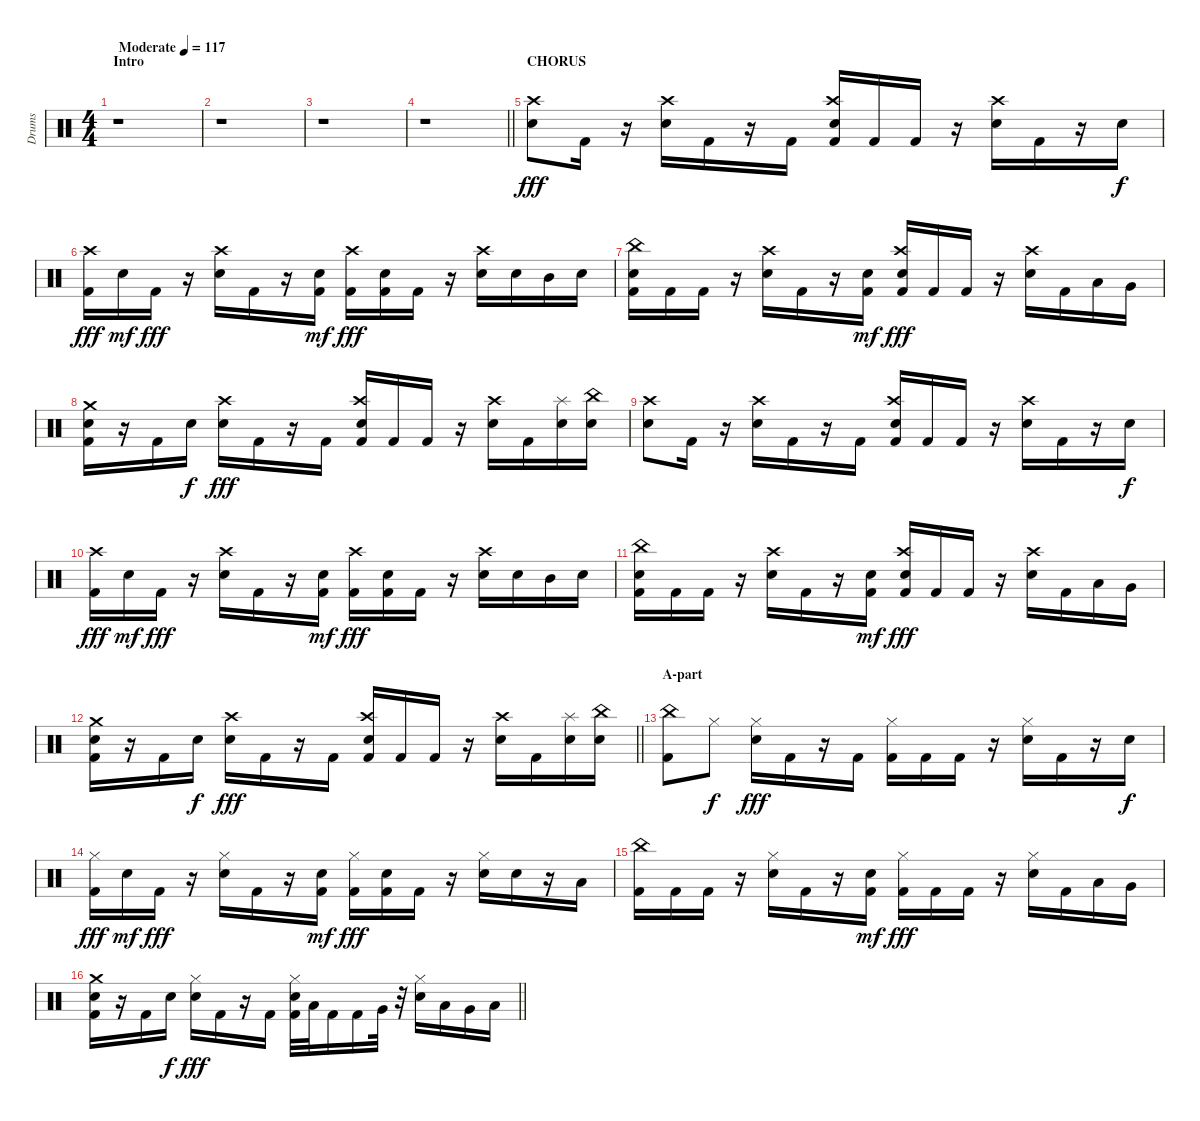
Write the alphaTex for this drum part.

\track ("Drums" "Drums") {instrument percussion}
\staff {score}
\articulation defaults
\ts (4 4)
\section ("" "Intro")
\tempo (117 "Moderate")
\clef neutral
\ks c
r.1{dy fff} |
r.1 |
r.1 |
\barLineRight lightlight
r.1 |
\section ("" "CHORUS")
("Snare (hit) 2" "Crash high (hit)").8 "Kick (hit) 2".16 r.16 ("Snare (hit) 2" "Crash high (hit)").16 "Kick (hit) 2".16 r.16 "Kick (hit) 2".16 ("Kick (hit) 2" "Snare (hit) 2" "Crash high (hit)").16 "Kick (hit) 2".16 "Kick (hit) 2".16 r.16 ("Snare (hit) 2" "Crash high (hit)").16 "Kick (hit) 2".16 r.16 "Snare (hit) 2".16{dy f} |
("Kick (hit) 2" "Crash high (hit)").16{dy fff} "Snare (hit) 2".16{dy mf} "Kick (hit) 2".16{dy fff} r.16 ("Snare (hit) 2" "Crash high (hit)").16 "Kick (hit) 2".16 r.16 ("Kick (hit) 2" "Snare (hit) 2").16{dy mf} ("Kick (hit) 2" "Crash high (hit)").16{dy fff} ("Kick (hit) 2" "Snare (hit) 2").16 "Kick (hit) 2".16 r.16 ("Snare (hit) 2" "Crash high (hit)").16 "Snare (hit) 2".16 "Mid Tom (hit)".16 "Snare (hit) 2".16 |
("Kick (hit) 2" "Snare (hit) 2" "China (hit)").16 "Kick (hit) 2".16 "Kick (hit) 2".16 r.16 ("Snare (hit) 2" "Crash high (hit)").16 "Kick (hit) 2".16 r.16 ("Kick (hit) 2" "Snare (hit) 2").16{dy mf} ("Kick (hit) 2" "Snare (hit) 2" "Crash high (hit)").16{dy fff} "Kick (hit) 2".16 "Kick (hit) 2".16 r.16 ("Snare (hit) 2" "Crash high (hit)").16 "Kick (hit) 2".16 "Low Tom (hit)".16 "Very Low Tom (hit)".16 |
("Kick (hit) 2" "Snare (hit) 2" "Crash medium (hit)").16 r.16 "Kick (hit) 2".16 "Snare (hit) 2".16{dy f} ("Snare (hit) 2" "Crash high (hit)").16{dy fff} "Kick (hit) 2".16 r.16 "Kick (hit) 2".16 ("Kick (hit) 2" "Snare (hit) 2" "Crash high (hit)").16 "Kick (hit) 2".16 "Kick (hit) 2".16 r.16 ("Snare (hit) 2" "Crash high (hit)").16 "Kick (hit) 2".16 ("Snare (hit) 2" "Splash (hit)").16 ("Snare (hit) 2" "China (hit)").16 |
("Snare (hit) 2" "Crash high (hit)").8 "Kick (hit) 2".16 r.16 ("Snare (hit) 2" "Crash high (hit)").16 "Kick (hit) 2".16 r.16 "Kick (hit) 2".16 ("Kick (hit) 2" "Snare (hit) 2" "Crash high (hit)").16 "Kick (hit) 2".16 "Kick (hit) 2".16 r.16 ("Snare (hit) 2" "Crash high (hit)").16 "Kick (hit) 2".16 r.16 "Snare (hit) 2".16{dy f} |
("Kick (hit) 2" "Crash high (hit)").16{dy fff} "Snare (hit) 2".16{dy mf} "Kick (hit) 2".16{dy fff} r.16 ("Snare (hit) 2" "Crash high (hit)").16 "Kick (hit) 2".16 r.16 ("Kick (hit) 2" "Snare (hit) 2").16{dy mf} ("Kick (hit) 2" "Crash high (hit)").16{dy fff} ("Kick (hit) 2" "Snare (hit) 2").16 "Kick (hit) 2".16 r.16 ("Snare (hit) 2" "Crash high (hit)").16 "Snare (hit) 2".16 "Mid Tom (hit)".16 "Snare (hit) 2".16 |
("Kick (hit) 2" "Snare (hit) 2" "China (hit)").16 "Kick (hit) 2".16 "Kick (hit) 2".16 r.16 ("Snare (hit) 2" "Crash high (hit)").16 "Kick (hit) 2".16 r.16 ("Kick (hit) 2" "Snare (hit) 2").16{dy mf} ("Kick (hit) 2" "Snare (hit) 2" "Crash high (hit)").16{dy fff} "Kick (hit) 2".16 "Kick (hit) 2".16 r.16 ("Snare (hit) 2" "Crash high (hit)").16 "Kick (hit) 2".16 "Low Tom (hit)".16 "Very Low Tom (hit)".16 |
\barLineRight lightlight
("Kick (hit) 2" "Snare (hit) 2" "Crash medium (hit)").16 r.16 "Kick (hit) 2".16 "Snare (hit) 2".16{dy f} ("Snare (hit) 2" "Crash high (hit)").16{dy fff} "Kick (hit) 2".16 r.16 "Kick (hit) 2".16 ("Kick (hit) 2" "Snare (hit) 2" "Crash high (hit)").16 "Kick (hit) 2".16 "Kick (hit) 2".16 r.16 ("Snare (hit) 2" "Crash high (hit)").16 "Kick (hit) 2".16 ("Snare (hit) 2" "Splash (hit)").16 ("Snare (hit) 2" "China (hit)").16 |
\section ("" "A-part")
("Kick (hit) 2" "China (hit)").8 "Hi-Hat (closed)".8{dy f} ("Snare (hit) 2" "Hi-Hat (closed)").16{dy fff} "Kick (hit) 2".16 r.16 "Kick (hit) 2".16 ("Kick (hit) 2" "Hi-Hat (closed)").16 "Kick (hit) 2".16 "Kick (hit) 2".16 r.16 ("Snare (hit) 2" "Hi-Hat (closed)").16 "Kick (hit) 2".16 r.16 "Snare (hit) 2".16{dy f} |
("Kick (hit) 2" "Hi-Hat (closed)").16{dy fff} "Snare (hit) 2".16{dy mf} "Kick (hit) 2".16{dy fff} r.16 ("Snare (hit) 2" "Hi-Hat (closed)").16 "Kick (hit) 2".16 r.16 ("Kick (hit) 2" "Snare (hit) 2").16{dy mf} ("Kick (hit) 2" "Hi-Hat (closed)").16{dy fff} ("Kick (hit) 2" "Snare (hit) 2").16 "Kick (hit) 2".16 r.16 ("Snare (hit) 2" "Hi-Hat (closed)").16 "Snare (hit) 2".16 r.16 "Low Tom (hit)".16 |
("Kick (hit) 2" "China (hit)").16 "Kick (hit) 2".16 "Kick (hit) 2".16 r.16 ("Snare (hit) 2" "Hi-Hat (closed)").16 "Kick (hit) 2".16 r.16 ("Kick (hit) 2" "Snare (hit) 2").16{dy mf} ("Kick (hit) 2" "Hi-Hat (closed)").16{dy fff} "Kick (hit) 2".16 "Kick (hit) 2".16 r.16 ("Snare (hit) 2" "Hi-Hat (closed)").16 "Kick (hit) 2".16 "Low Tom (hit)".16 "Very Low Tom (hit)".16 |
\barLineRight lightlight
("Kick (hit) 2" "Snare (hit) 2" "Crash medium (hit)").16 r.16 "Kick (hit) 2".16 "Snare (hit) 2".16{dy f} ("Snare (hit) 2" "Hi-Hat (closed)").16{dy fff} "Kick (hit) 2".16 r.16 "Kick (hit) 2".16 ("Kick (hit) 2" "Snare (hit) 2" "Hi-Hat (closed)").32 "Low Tom (hit)".32 "Kick (hit) 2".16 "Kick (hit) 2".16 "Very Low Tom (hit)".32 r.32 ("Snare (hit) 2" "Hi-Hat (closed)").16 "Low Tom (hit)".16 "Very Low Tom (hit)".16 "Low Floor Tom (hit)".16
